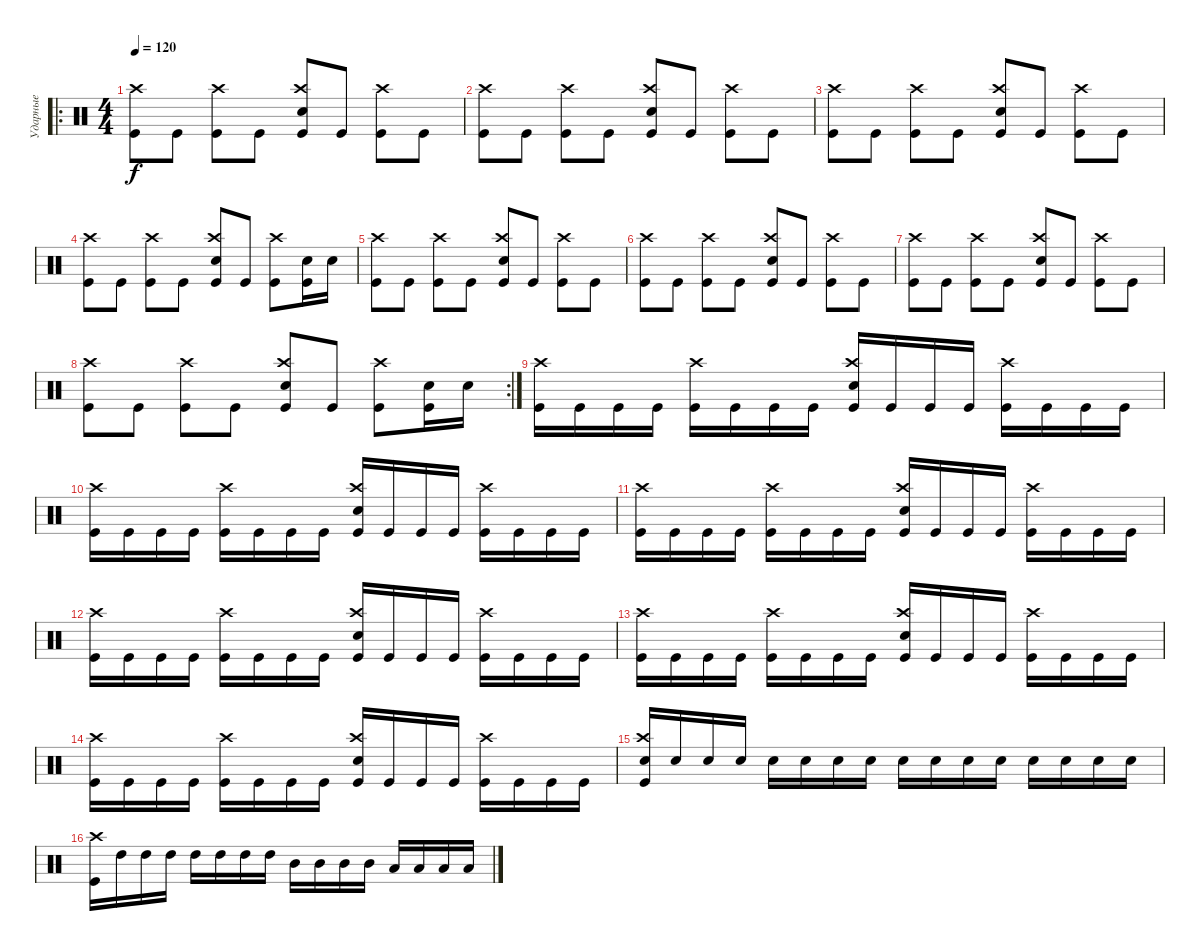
\track ("Ударные" "Ударные") {instrument percussion}
\staff {score}
\articulation defaults
\ro
\ts (4 4)
\tempo 120
\clef neutral
\ks c
("Kick (hit)" "Crash high (hit)").8{dy f} "Kick (hit)".8 ("Kick (hit)" "Crash high (hit)").8 "Kick (hit)".8 ("Kick (hit)" "Snare (hit) 2" "Crash high (hit)").8 "Kick (hit)".8 ("Kick (hit)" "Crash high (hit)").8 "Kick (hit)".8 |
("Kick (hit)" "Crash high (hit)").8 "Kick (hit)".8 ("Kick (hit)" "Crash high (hit)").8 "Kick (hit)".8 ("Kick (hit)" "Snare (hit) 2" "Crash high (hit)").8 "Kick (hit)".8 ("Kick (hit)" "Crash high (hit)").8 "Kick (hit)".8 |
("Kick (hit)" "Crash high (hit)").8 "Kick (hit)".8 ("Kick (hit)" "Crash high (hit)").8 "Kick (hit)".8 ("Kick (hit)" "Snare (hit) 2" "Crash high (hit)").8 "Kick (hit)".8 ("Kick (hit)" "Crash high (hit)").8 "Kick (hit)".8 |
("Kick (hit)" "Crash high (hit)").8 "Kick (hit)".8 ("Kick (hit)" "Crash high (hit)").8 "Kick (hit)".8 ("Kick (hit)" "Snare (hit) 2" "Crash high (hit)").8 "Kick (hit)".8 ("Kick (hit)" "Crash high (hit)").8 ("Kick (hit)" "Snare (hit) 2").16 "Snare (hit) 2".16 |
("Kick (hit)" "Crash high (hit)").8 "Kick (hit)".8 ("Kick (hit)" "Crash high (hit)").8 "Kick (hit)".8 ("Kick (hit)" "Snare (hit) 2" "Crash high (hit)").8 "Kick (hit)".8 ("Kick (hit)" "Crash high (hit)").8 "Kick (hit)".8 |
("Kick (hit)" "Crash high (hit)").8 "Kick (hit)".8 ("Kick (hit)" "Crash high (hit)").8 "Kick (hit)".8 ("Kick (hit)" "Snare (hit) 2" "Crash high (hit)").8 "Kick (hit)".8 ("Kick (hit)" "Crash high (hit)").8 "Kick (hit)".8 |
("Kick (hit)" "Crash high (hit)").8 "Kick (hit)".8 ("Kick (hit)" "Crash high (hit)").8 "Kick (hit)".8 ("Kick (hit)" "Snare (hit) 2" "Crash high (hit)").8 "Kick (hit)".8 ("Kick (hit)" "Crash high (hit)").8 "Kick (hit)".8 |
\rc 2
("Kick (hit)" "Crash high (hit)").8 "Kick (hit)".8 ("Kick (hit)" "Crash high (hit)").8 "Kick (hit)".8 ("Kick (hit)" "Snare (hit) 2" "Crash high (hit)").8 "Kick (hit)".8 ("Kick (hit)" "Crash high (hit)").8 ("Kick (hit)" "Snare (hit) 2").16 "Snare (hit) 2".16 |
("Kick (hit)" "Crash high (hit)").16 "Kick (hit)".16 "Kick (hit)".16 "Kick (hit)".16 ("Kick (hit)" "Crash high (hit)").16 "Kick (hit)".16 "Kick (hit)".16 "Kick (hit)".16 ("Kick (hit)" "Snare (hit) 2" "Crash high (hit)").16 "Kick (hit)".16 "Kick (hit)".16 "Kick (hit)".16 ("Kick (hit)" "Crash high (hit)").16 "Kick (hit)".16 "Kick (hit)".16 "Kick (hit)".16 |
("Kick (hit)" "Crash high (hit)").16 "Kick (hit)".16 "Kick (hit)".16 "Kick (hit)".16 ("Kick (hit)" "Crash high (hit)").16 "Kick (hit)".16 "Kick (hit)".16 "Kick (hit)".16 ("Kick (hit)" "Snare (hit) 2" "Crash high (hit)").16 "Kick (hit)".16 "Kick (hit)".16 "Kick (hit)".16 ("Kick (hit)" "Crash high (hit)").16 "Kick (hit)".16 "Kick (hit)".16 "Kick (hit)".16 |
("Kick (hit)" "Crash high (hit)").16 "Kick (hit)".16 "Kick (hit)".16 "Kick (hit)".16 ("Kick (hit)" "Crash high (hit)").16 "Kick (hit)".16 "Kick (hit)".16 "Kick (hit)".16 ("Kick (hit)" "Snare (hit) 2" "Crash high (hit)").16 "Kick (hit)".16 "Kick (hit)".16 "Kick (hit)".16 ("Kick (hit)" "Crash high (hit)").16 "Kick (hit)".16 "Kick (hit)".16 "Kick (hit)".16 |
("Kick (hit)" "Crash high (hit)").16 "Kick (hit)".16 "Kick (hit)".16 "Kick (hit)".16 ("Kick (hit)" "Crash high (hit)").16 "Kick (hit)".16 "Kick (hit)".16 "Kick (hit)".16 ("Kick (hit)" "Snare (hit) 2" "Crash high (hit)").16 "Kick (hit)".16 "Kick (hit)".16 "Kick (hit)".16 ("Kick (hit)" "Crash high (hit)").16 "Kick (hit)".16 "Kick (hit)".16 "Kick (hit)".16 |
("Kick (hit)" "Crash high (hit)").16 "Kick (hit)".16 "Kick (hit)".16 "Kick (hit)".16 ("Kick (hit)" "Crash high (hit)").16 "Kick (hit)".16 "Kick (hit)".16 "Kick (hit)".16 ("Kick (hit)" "Snare (hit) 2" "Crash high (hit)").16 "Kick (hit)".16 "Kick (hit)".16 "Kick (hit)".16 ("Kick (hit)" "Crash high (hit)").16 "Kick (hit)".16 "Kick (hit)".16 "Kick (hit)".16 |
("Kick (hit)" "Crash high (hit)").16 "Kick (hit)".16 "Kick (hit)".16 "Kick (hit)".16 ("Kick (hit)" "Crash high (hit)").16 "Kick (hit)".16 "Kick (hit)".16 "Kick (hit)".16 ("Kick (hit)" "Snare (hit) 2" "Crash high (hit)").16 "Kick (hit)".16 "Kick (hit)".16 "Kick (hit)".16 ("Kick (hit)" "Crash high (hit)").16 "Kick (hit)".16 "Kick (hit)".16 "Kick (hit)".16 |
("Snare (hit) 2" "Crash high (hit)" "Kick (hit)").16 "Snare (hit) 2".16 "Snare (hit) 2".16 "Snare (hit) 2".16 "Snare (hit) 2".16 "Snare (hit) 2".16 "Snare (hit) 2".16 "Snare (hit) 2".16 "Snare (hit) 2".16 "Snare (hit) 2".16 "Snare (hit) 2".16 "Snare (hit) 2".16 "Snare (hit) 2".16 "Snare (hit) 2".16 "Snare (hit) 2".16 "Snare (hit) 2".16 |
("Kick (hit)" "Crash high (hit)").16 "High Tom (hit)".16 "High Tom (hit)".16 "High Tom (hit)".16 "High Tom (hit)".16 "High Tom (hit)".16 "High Tom (hit)".16 "High Tom (hit)".16 "Mid Tom (hit)".16 "Mid Tom (hit)".16 "Mid Tom (hit)".16 "Mid Tom (hit)".16 "Low Tom (hit)".16 "Low Tom (hit)".16 "Low Tom (hit)".16 "Low Tom (hit)".16
